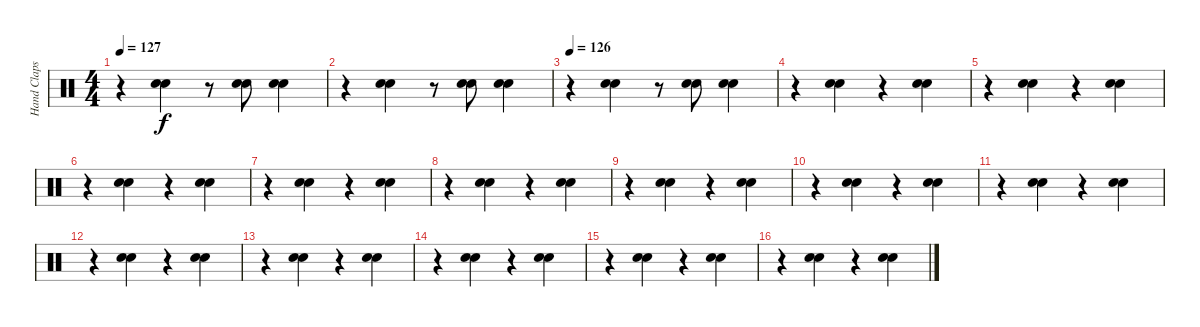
\track ("Hand Claps" "Hand Claps") {instrument percussion}
\staff {score}
\articulation defaults
\ts (4 4)
\tempo 127
\clef neutral
\ks c
r.4{dy f} ("Hand Clap (hit)" "Hand Clap (hit)").4 r.8 ("Hand Clap (hit)" "Hand Clap (hit)").8 ("Hand Clap (hit)" "Hand Clap (hit)").4 |
r.4 ("Hand Clap (hit)" "Hand Clap (hit)").4 r.8 ("Hand Clap (hit)" "Hand Clap (hit)").8 ("Hand Clap (hit)" "Hand Clap (hit)").4 |
\tempo 126
r.4 ("Hand Clap (hit)" "Hand Clap (hit)").4 r.8 ("Hand Clap (hit)" "Hand Clap (hit)").8 ("Hand Clap (hit)" "Hand Clap (hit)").4 |
r.4 ("Hand Clap (hit)" "Hand Clap (hit)").4 r.4 ("Hand Clap (hit)" "Hand Clap (hit)").4 |
r.4 ("Hand Clap (hit)" "Hand Clap (hit)").4 r.4 ("Hand Clap (hit)" "Hand Clap (hit)").4 |
r.4 ("Hand Clap (hit)" "Hand Clap (hit)").4 r.4 ("Hand Clap (hit)" "Hand Clap (hit)").4 |
r.4 ("Hand Clap (hit)" "Hand Clap (hit)").4 r.4 ("Hand Clap (hit)" "Hand Clap (hit)").4 |
r.4 ("Hand Clap (hit)" "Hand Clap (hit)").4 r.4 ("Hand Clap (hit)" "Hand Clap (hit)").4 |
r.4 ("Hand Clap (hit)" "Hand Clap (hit)").4 r.4 ("Hand Clap (hit)" "Hand Clap (hit)").4 |
r.4 ("Hand Clap (hit)" "Hand Clap (hit)").4 r.4 ("Hand Clap (hit)" "Hand Clap (hit)").4 |
r.4 ("Hand Clap (hit)" "Hand Clap (hit)").4 r.4 ("Hand Clap (hit)" "Hand Clap (hit)").4 |
r.4 ("Hand Clap (hit)" "Hand Clap (hit)").4 r.4 ("Hand Clap (hit)" "Hand Clap (hit)").4 |
r.4 ("Hand Clap (hit)" "Hand Clap (hit)").4 r.4 ("Hand Clap (hit)" "Hand Clap (hit)").4 |
r.4 ("Hand Clap (hit)" "Hand Clap (hit)").4 r.4 ("Hand Clap (hit)" "Hand Clap (hit)").4 |
r.4 ("Hand Clap (hit)" "Hand Clap (hit)").4 r.4 ("Hand Clap (hit)" "Hand Clap (hit)").4 |
r.4 ("Hand Clap (hit)" "Hand Clap (hit)").4 r.4 ("Hand Clap (hit)" "Hand Clap (hit)").4
